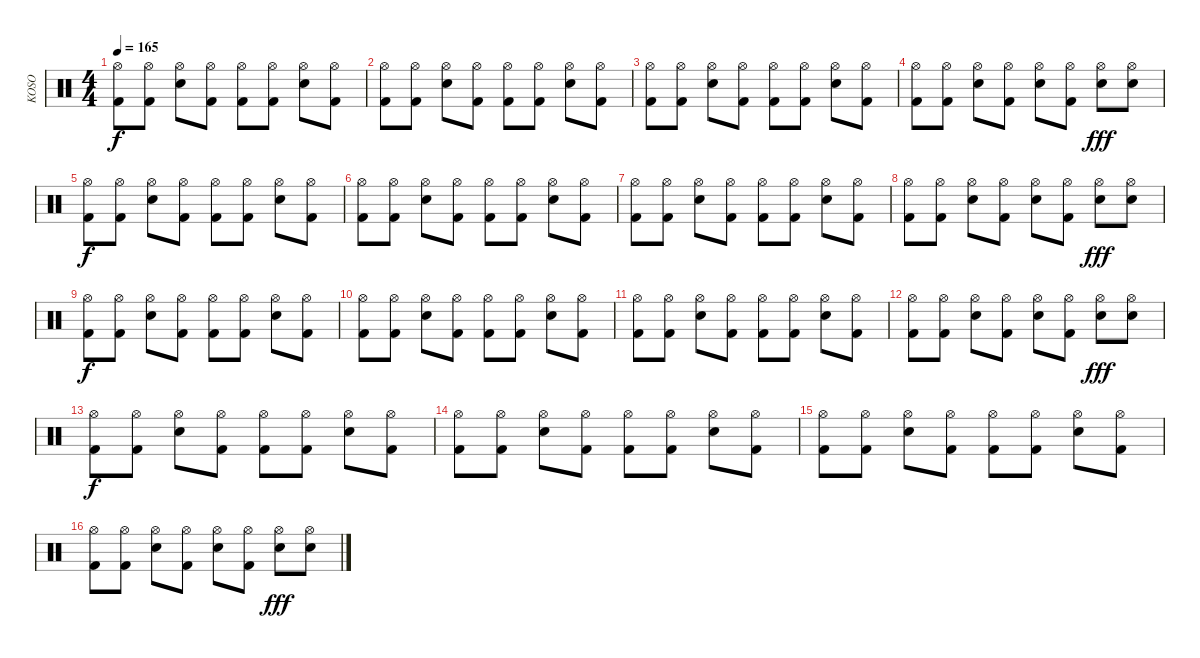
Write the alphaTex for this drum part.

\track ("KOSO" "KOSO") {instrument percussion}
\staff {score}
\articulation defaults
\ts (4 4)
\tempo 165
\clef neutral
\ks c
("Hi-Hat (open)" "Kick (hit) 2").8{dy f} ("Hi-Hat (open)" "Kick (hit) 2").8 ("Hi-Hat (open)" "Snare (hit) 2").8 ("Hi-Hat (open)" "Kick (hit) 2").8 ("Hi-Hat (open)" "Kick (hit) 2").8 ("Hi-Hat (open)" "Kick (hit) 2").8 ("Hi-Hat (open)" "Snare (hit) 2").8 ("Hi-Hat (open)" "Kick (hit) 2").8 |
("Hi-Hat (open)" "Kick (hit) 2").8 ("Hi-Hat (open)" "Kick (hit) 2").8 ("Hi-Hat (open)" "Snare (hit) 2").8 ("Hi-Hat (open)" "Kick (hit) 2").8 ("Hi-Hat (open)" "Kick (hit) 2").8 ("Hi-Hat (open)" "Kick (hit) 2").8 ("Hi-Hat (open)" "Snare (hit) 2").8 ("Hi-Hat (open)" "Kick (hit) 2").8 |
("Hi-Hat (open)" "Kick (hit) 2").8 ("Hi-Hat (open)" "Kick (hit) 2").8 ("Hi-Hat (open)" "Snare (hit) 2").8 ("Hi-Hat (open)" "Kick (hit) 2").8 ("Hi-Hat (open)" "Kick (hit) 2").8 ("Hi-Hat (open)" "Kick (hit) 2").8 ("Hi-Hat (open)" "Snare (hit) 2").8 ("Hi-Hat (open)" "Kick (hit) 2").8 |
("Hi-Hat (open)" "Kick (hit) 2").8 ("Hi-Hat (open)" "Kick (hit) 2").8 ("Hi-Hat (open)" "Snare (hit) 2").8 ("Hi-Hat (open)" "Kick (hit) 2").8 ("Hi-Hat (open)" "Snare (hit) 2").8 ("Hi-Hat (open)" "Kick (hit) 2").8 ("Hi-Hat (open)" "Snare (hit) 2").8{dy fff} ("Hi-Hat (open)" "Snare (hit) 2").8 |
("Hi-Hat (open)" "Kick (hit) 2").8{dy f} ("Hi-Hat (open)" "Kick (hit) 2").8 ("Hi-Hat (open)" "Snare (hit) 2").8 ("Hi-Hat (open)" "Kick (hit) 2").8 ("Hi-Hat (open)" "Kick (hit) 2").8 ("Hi-Hat (open)" "Kick (hit) 2").8 ("Hi-Hat (open)" "Snare (hit) 2").8 ("Hi-Hat (open)" "Kick (hit) 2").8 |
("Hi-Hat (open)" "Kick (hit) 2").8 ("Hi-Hat (open)" "Kick (hit) 2").8 ("Hi-Hat (open)" "Snare (hit) 2").8 ("Hi-Hat (open)" "Kick (hit) 2").8 ("Hi-Hat (open)" "Kick (hit) 2").8 ("Hi-Hat (open)" "Kick (hit) 2").8 ("Hi-Hat (open)" "Snare (hit) 2").8 ("Hi-Hat (open)" "Kick (hit) 2").8 |
("Hi-Hat (open)" "Kick (hit) 2").8 ("Hi-Hat (open)" "Kick (hit) 2").8 ("Hi-Hat (open)" "Snare (hit) 2").8 ("Hi-Hat (open)" "Kick (hit) 2").8 ("Hi-Hat (open)" "Kick (hit) 2").8 ("Hi-Hat (open)" "Kick (hit) 2").8 ("Hi-Hat (open)" "Snare (hit) 2").8 ("Hi-Hat (open)" "Kick (hit) 2").8 |
("Hi-Hat (open)" "Kick (hit) 2").8 ("Hi-Hat (open)" "Kick (hit) 2").8 ("Hi-Hat (open)" "Snare (hit) 2").8 ("Hi-Hat (open)" "Kick (hit) 2").8 ("Hi-Hat (open)" "Snare (hit) 2").8 ("Hi-Hat (open)" "Kick (hit) 2").8 ("Hi-Hat (open)" "Snare (hit) 2").8{dy fff} ("Hi-Hat (open)" "Snare (hit) 2").8 |
("Hi-Hat (open)" "Kick (hit) 2").8{dy f} ("Hi-Hat (open)" "Kick (hit) 2").8 ("Hi-Hat (open)" "Snare (hit) 2").8 ("Hi-Hat (open)" "Kick (hit) 2").8 ("Hi-Hat (open)" "Kick (hit) 2").8 ("Hi-Hat (open)" "Kick (hit) 2").8 ("Hi-Hat (open)" "Snare (hit) 2").8 ("Hi-Hat (open)" "Kick (hit) 2").8 |
("Hi-Hat (open)" "Kick (hit) 2").8 ("Hi-Hat (open)" "Kick (hit) 2").8 ("Hi-Hat (open)" "Snare (hit) 2").8 ("Hi-Hat (open)" "Kick (hit) 2").8 ("Hi-Hat (open)" "Kick (hit) 2").8 ("Hi-Hat (open)" "Kick (hit) 2").8 ("Hi-Hat (open)" "Snare (hit) 2").8 ("Hi-Hat (open)" "Kick (hit) 2").8 |
("Hi-Hat (open)" "Kick (hit) 2").8 ("Hi-Hat (open)" "Kick (hit) 2").8 ("Hi-Hat (open)" "Snare (hit) 2").8 ("Hi-Hat (open)" "Kick (hit) 2").8 ("Hi-Hat (open)" "Kick (hit) 2").8 ("Hi-Hat (open)" "Kick (hit) 2").8 ("Hi-Hat (open)" "Snare (hit) 2").8 ("Hi-Hat (open)" "Kick (hit) 2").8 |
("Hi-Hat (open)" "Kick (hit) 2").8 ("Hi-Hat (open)" "Kick (hit) 2").8 ("Hi-Hat (open)" "Snare (hit) 2").8 ("Hi-Hat (open)" "Kick (hit) 2").8 ("Hi-Hat (open)" "Snare (hit) 2").8 ("Hi-Hat (open)" "Kick (hit) 2").8 ("Hi-Hat (open)" "Snare (hit) 2").8{dy fff} ("Hi-Hat (open)" "Snare (hit) 2").8 |
("Hi-Hat (open)" "Kick (hit) 2").8{dy f} ("Hi-Hat (open)" "Kick (hit) 2").8 ("Hi-Hat (open)" "Snare (hit) 2").8 ("Hi-Hat (open)" "Kick (hit) 2").8 ("Hi-Hat (open)" "Kick (hit) 2").8 ("Hi-Hat (open)" "Kick (hit) 2").8 ("Hi-Hat (open)" "Snare (hit) 2").8 ("Hi-Hat (open)" "Kick (hit) 2").8 |
("Hi-Hat (open)" "Kick (hit) 2").8 ("Hi-Hat (open)" "Kick (hit) 2").8 ("Hi-Hat (open)" "Snare (hit) 2").8 ("Hi-Hat (open)" "Kick (hit) 2").8 ("Hi-Hat (open)" "Kick (hit) 2").8 ("Hi-Hat (open)" "Kick (hit) 2").8 ("Hi-Hat (open)" "Snare (hit) 2").8 ("Hi-Hat (open)" "Kick (hit) 2").8 |
("Hi-Hat (open)" "Kick (hit) 2").8 ("Hi-Hat (open)" "Kick (hit) 2").8 ("Hi-Hat (open)" "Snare (hit) 2").8 ("Hi-Hat (open)" "Kick (hit) 2").8 ("Hi-Hat (open)" "Kick (hit) 2").8 ("Hi-Hat (open)" "Kick (hit) 2").8 ("Hi-Hat (open)" "Snare (hit) 2").8 ("Hi-Hat (open)" "Kick (hit) 2").8 |
("Hi-Hat (open)" "Kick (hit) 2").8 ("Hi-Hat (open)" "Kick (hit) 2").8 ("Hi-Hat (open)" "Snare (hit) 2").8 ("Hi-Hat (open)" "Kick (hit) 2").8 ("Hi-Hat (open)" "Snare (hit) 2").8 ("Hi-Hat (open)" "Kick (hit) 2").8 ("Hi-Hat (open)" "Snare (hit) 2").8{dy fff} ("Hi-Hat (open)" "Snare (hit) 2").8
